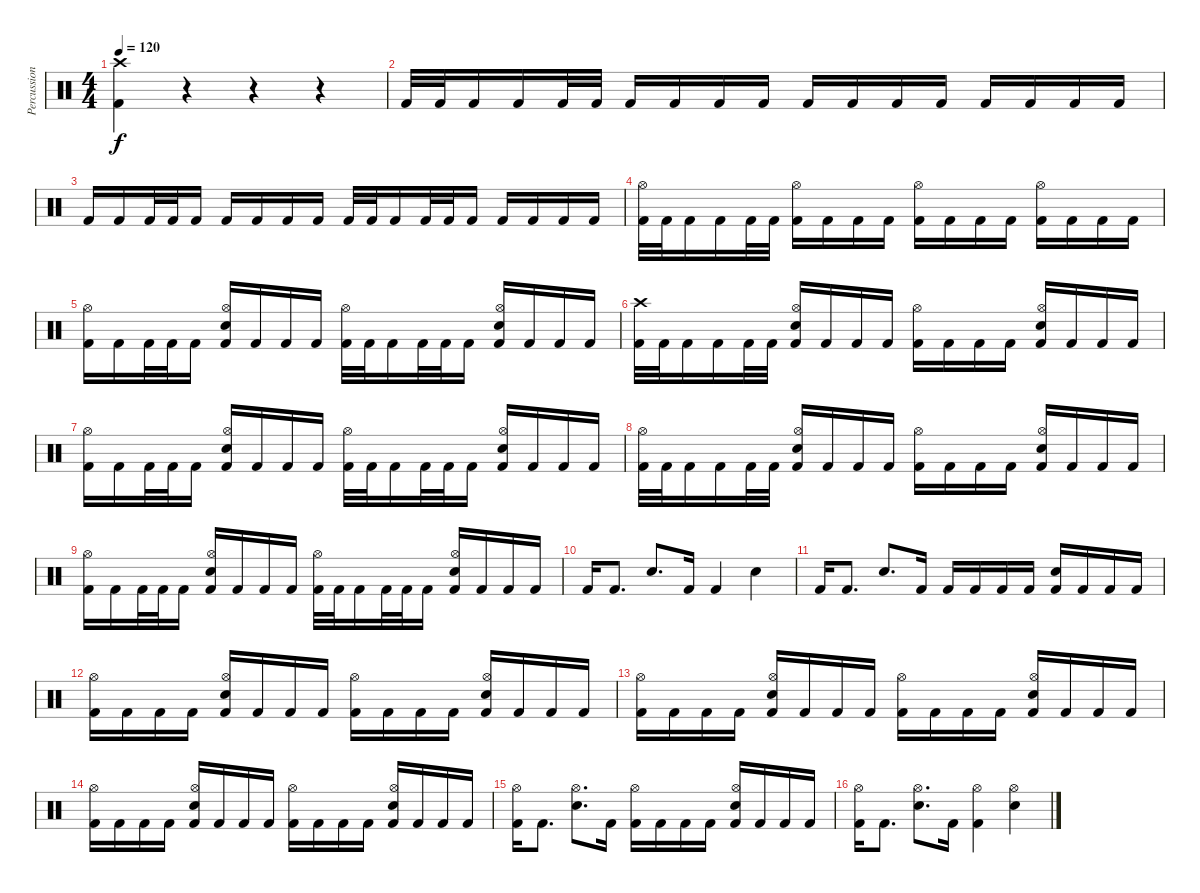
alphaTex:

\track ("Percussion" "Percussion") {instrument percussion}
\staff {score}
\articulation defaults
\ts (4 4)
\tempo 120
\clef neutral
\ks c
("Crash high (hit)" "Kick (hit) 2").4{dy f} r.4 r.4 r.4 |
"Kick (hit) 2".32 "Kick (hit) 2".32 "Kick (hit) 2".16 "Kick (hit) 2".16 "Kick (hit) 2".32 "Kick (hit) 2".32 "Kick (hit) 2".16 "Kick (hit) 2".16 "Kick (hit) 2".16 "Kick (hit) 2".16 "Kick (hit) 2".16 "Kick (hit) 2".16 "Kick (hit) 2".16 "Kick (hit) 2".16 "Kick (hit) 2".16 "Kick (hit) 2".16 "Kick (hit) 2".16 "Kick (hit) 2".16 |
"Kick (hit) 2".16 "Kick (hit) 2".16 "Kick (hit) 2".32 "Kick (hit) 2".32 "Kick (hit) 2".16 "Kick (hit) 2".16 "Kick (hit) 2".16 "Kick (hit) 2".16 "Kick (hit) 2".16 "Kick (hit) 2".32 "Kick (hit) 2".32 "Kick (hit) 2".16 "Kick (hit) 2".32 "Kick (hit) 2".32 "Kick (hit) 2".16 "Kick (hit) 2".16 "Kick (hit) 2".16 "Kick (hit) 2".16 "Kick (hit) 2".16 |
("Hi-Hat (open)" "Kick (hit) 2").32 "Kick (hit) 2".32 "Kick (hit) 2".16 "Kick (hit) 2".16 "Kick (hit) 2".32 "Kick (hit) 2".32 ("Hi-Hat (open)" "Kick (hit) 2").16 "Kick (hit) 2".16 "Kick (hit) 2".16 "Kick (hit) 2".16 ("Hi-Hat (open)" "Kick (hit) 2").16 "Kick (hit) 2".16 "Kick (hit) 2".16 "Kick (hit) 2".16 ("Hi-Hat (open)" "Kick (hit) 2").16 "Kick (hit) 2".16 "Kick (hit) 2".16 "Kick (hit) 2".16 |
("Hi-Hat (open)" "Kick (hit) 2").16 "Kick (hit) 2".16 "Kick (hit) 2".32 "Kick (hit) 2".32 "Kick (hit) 2".16 ("Hi-Hat (open)" "Snare (hit) 2" "Kick (hit) 2").16 "Kick (hit) 2".16 "Kick (hit) 2".16 "Kick (hit) 2".16 ("Hi-Hat (open)" "Kick (hit) 2").32 "Kick (hit) 2".32 "Kick (hit) 2".16 "Kick (hit) 2".32 "Kick (hit) 2".32 "Kick (hit) 2".16 ("Hi-Hat (open)" "Snare (hit) 2" "Kick (hit) 2").16 "Kick (hit) 2".16 "Kick (hit) 2".16 "Kick (hit) 2".16 |
("Crash high (hit)" "Kick (hit) 2").32 "Kick (hit) 2".32 "Kick (hit) 2".16 "Kick (hit) 2".16 "Kick (hit) 2".32 "Kick (hit) 2".32 ("Hi-Hat (open)" "Snare (hit) 2" "Kick (hit) 2").16 "Kick (hit) 2".16 "Kick (hit) 2".16 "Kick (hit) 2".16 ("Hi-Hat (open)" "Kick (hit) 2").16 "Kick (hit) 2".16 "Kick (hit) 2".16 "Kick (hit) 2".16 ("Hi-Hat (open)" "Snare (hit) 2" "Kick (hit) 2").16 "Kick (hit) 2".16 "Kick (hit) 2".16 "Kick (hit) 2".16 |
("Hi-Hat (open)" "Kick (hit) 2").16 "Kick (hit) 2".16 "Kick (hit) 2".32 "Kick (hit) 2".32 "Kick (hit) 2".16 ("Hi-Hat (open)" "Snare (hit) 2" "Kick (hit) 2").16 "Kick (hit) 2".16 "Kick (hit) 2".16 "Kick (hit) 2".16 ("Hi-Hat (open)" "Kick (hit) 2").32 "Kick (hit) 2".32 "Kick (hit) 2".16 "Kick (hit) 2".32 "Kick (hit) 2".32 "Kick (hit) 2".16 ("Hi-Hat (open)" "Snare (hit) 2" "Kick (hit) 2").16 "Kick (hit) 2".16 "Kick (hit) 2".16 "Kick (hit) 2".16 |
("Hi-Hat (open)" "Kick (hit) 2").32 "Kick (hit) 2".32 "Kick (hit) 2".16 "Kick (hit) 2".16 "Kick (hit) 2".32 "Kick (hit) 2".32 ("Hi-Hat (open)" "Snare (hit) 2" "Kick (hit) 2").16 "Kick (hit) 2".16 "Kick (hit) 2".16 "Kick (hit) 2".16 ("Hi-Hat (open)" "Kick (hit) 2").16 "Kick (hit) 2".16 "Kick (hit) 2".16 "Kick (hit) 2".16 ("Hi-Hat (open)" "Snare (hit) 2" "Kick (hit) 2").16 "Kick (hit) 2".16 "Kick (hit) 2".16 "Kick (hit) 2".16 |
("Hi-Hat (open)" "Kick (hit) 2").16 "Kick (hit) 2".16 "Kick (hit) 2".32 "Kick (hit) 2".32 "Kick (hit) 2".16 ("Hi-Hat (open)" "Snare (hit) 2" "Kick (hit) 2").16 "Kick (hit) 2".16 "Kick (hit) 2".16 "Kick (hit) 2".16 ("Hi-Hat (open)" "Kick (hit) 2").32 "Kick (hit) 2".32 "Kick (hit) 2".16 "Kick (hit) 2".32 "Kick (hit) 2".32 "Kick (hit) 2".16 ("Hi-Hat (open)" "Snare (hit) 2" "Kick (hit) 2").16 "Kick (hit) 2".16 "Kick (hit) 2".16 "Kick (hit) 2".16 |
"Kick (hit) 2".16 "Kick (hit) 2".8{d} "Snare (hit) 2".8{d} "Kick (hit) 2".16 "Kick (hit) 2".4 "Snare (hit) 2".4 |
"Kick (hit) 2".16 "Kick (hit) 2".8{d} "Snare (hit) 2".8{d} "Kick (hit) 2".16 "Kick (hit) 2".16 "Kick (hit) 2".16 "Kick (hit) 2".16 "Kick (hit) 2".16 ("Snare (hit) 2" "Kick (hit) 2").16 "Kick (hit) 2".16 "Kick (hit) 2".16 "Kick (hit) 2".16 |
("Hi-Hat (open)" "Kick (hit) 2").16 "Kick (hit) 2".16 "Kick (hit) 2".16 "Kick (hit) 2".16 ("Hi-Hat (open)" "Snare (hit) 2" "Kick (hit) 2").16 "Kick (hit) 2".16 "Kick (hit) 2".16 "Kick (hit) 2".16 ("Hi-Hat (open)" "Kick (hit) 2").16 "Kick (hit) 2".16 "Kick (hit) 2".16 "Kick (hit) 2".16 ("Hi-Hat (open)" "Snare (hit) 2" "Kick (hit) 2").16 "Kick (hit) 2".16 "Kick (hit) 2".16 "Kick (hit) 2".16 |
("Hi-Hat (open)" "Kick (hit) 2").16 "Kick (hit) 2".16 "Kick (hit) 2".16 "Kick (hit) 2".16 ("Hi-Hat (open)" "Snare (hit) 2" "Kick (hit) 2").16 "Kick (hit) 2".16 "Kick (hit) 2".16 "Kick (hit) 2".16 ("Hi-Hat (open)" "Kick (hit) 2").16 "Kick (hit) 2".16 "Kick (hit) 2".16 "Kick (hit) 2".16 ("Hi-Hat (open)" "Snare (hit) 2" "Kick (hit) 2").16 "Kick (hit) 2".16 "Kick (hit) 2".16 "Kick (hit) 2".16 |
("Hi-Hat (open)" "Kick (hit) 2").16 "Kick (hit) 2".16 "Kick (hit) 2".16 "Kick (hit) 2".16 ("Hi-Hat (open)" "Snare (hit) 2" "Kick (hit) 2").16 "Kick (hit) 2".16 "Kick (hit) 2".16 "Kick (hit) 2".16 ("Hi-Hat (open)" "Kick (hit) 2").16 "Kick (hit) 2".16 "Kick (hit) 2".16 "Kick (hit) 2".16 ("Hi-Hat (open)" "Snare (hit) 2" "Kick (hit) 2").16 "Kick (hit) 2".16 "Kick (hit) 2".16 "Kick (hit) 2".16 |
("Hi-Hat (open)" "Kick (hit) 2").16 "Kick (hit) 2".8{d} ("Hi-Hat (open)" "Snare (hit) 2").8{d} "Kick (hit) 2".16 ("Hi-Hat (open)" "Kick (hit) 2").16 "Kick (hit) 2".16 "Kick (hit) 2".16 "Kick (hit) 2".16 ("Hi-Hat (open)" "Snare (hit) 2" "Kick (hit) 2").16 "Kick (hit) 2".16 "Kick (hit) 2".16 "Kick (hit) 2".16 |
("Hi-Hat (open)" "Kick (hit) 2").16 "Kick (hit) 2".8{d} ("Hi-Hat (open)" "Snare (hit) 2").8{d} "Kick (hit) 2".16 ("Hi-Hat (open)" "Kick (hit) 2").4 ("Hi-Hat (open)" "Snare (hit) 2").4
